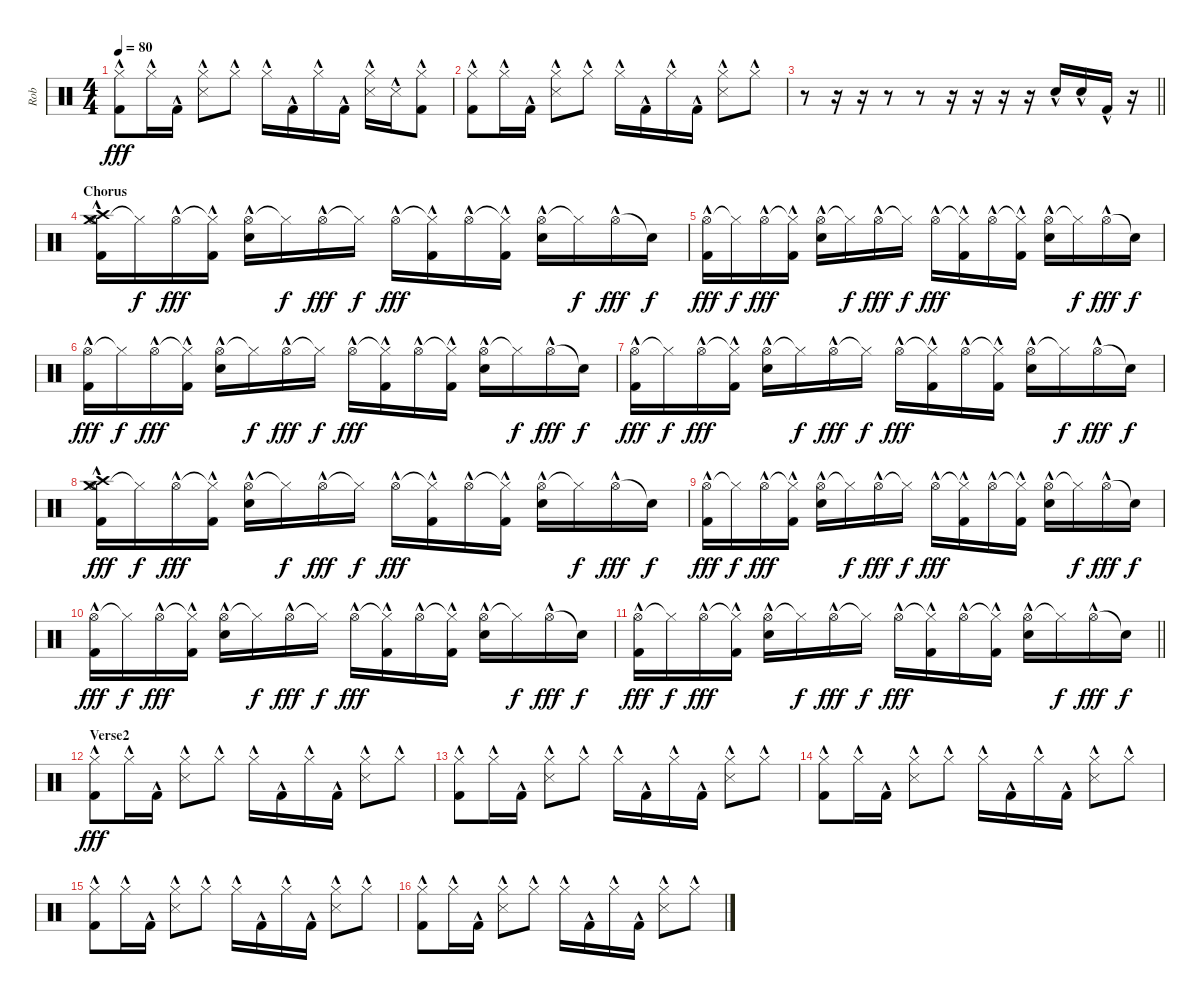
\track ("Rob" "Rob") {instrument percussion}
\staff {score}
\articulation defaults
\ts (4 4)
\tempo 80
\clef neutral
\ks c
("Hi-Hat (closed)"{hac} "Kick (hit) 2"{hac}).8{dy fff} "Hi-Hat (closed)"{hac}.16 "Kick (hit) 2"{hac}.16 ("Hi-Hat (closed)"{hac} "Snare (side stick) 3"{hac}).8 "Hi-Hat (closed)"{hac}.8 "Hi-Hat (closed)"{hac}.16 "Kick (hit) 2"{hac}.16 "Hi-Hat (closed)"{hac}.16 "Kick (hit) 2"{hac}.16 ("Hi-Hat (closed)"{hac} "Snare (side stick) 3"{hac}).16 "Snare (side stick) 3"{hac}.16 ("Hi-Hat (closed)"{hac} "Kick (hit) 2"{hac}).8 |
("Hi-Hat (closed)"{hac} "Kick (hit) 2"{hac}).8 "Hi-Hat (closed)"{hac}.16 "Kick (hit) 2"{hac}.16 ("Hi-Hat (closed)"{hac} "Snare (side stick) 3"{hac}).8 "Hi-Hat (closed)"{hac}.8 "Hi-Hat (closed)"{hac}.16 "Kick (hit) 2"{hac}.16 "Hi-Hat (closed)"{hac}.16 "Kick (hit) 2"{hac}.16 ("Hi-Hat (closed)"{hac} "Snare (side stick) 3"{hac}).8 "Hi-Hat (closed)"{hac}.8 |
\barLineRight lightlight
r.8 r.16 r.16 r.8 r.8 r.16 r.16 r.16 r.16 "Electric Snare (hit)"{hac}.16 "Electric Snare (hit)"{hac}.16 "Kick (hit) 2"{hac}.16 r.16 |
\section ("" "Chorus")
("Crash medium (hit)"{hac} "Crash high (hit)"{hac} "Hi-Hat (open)"{hac} "Kick (hit) 2"{hac}).16 "Hi-Hat (closed)"{t}.16{dy f} "Hi-Hat (open)"{hac}.16{dy fff} ("Hi-Hat (closed)"{t} "Kick (hit) 2"{hac}).16 ("Hi-Hat (open)"{hac} "Electric Snare (hit)"{hac}).16 "Hi-Hat (closed)"{t}.16{dy f} "Hi-Hat (open)"{hac}.16{dy fff} "Hi-Hat (closed)"{t}.16{dy f} "Hi-Hat (open)"{hac}.16{dy fff} ("Hi-Hat (closed)"{t} "Kick (hit) 2"{hac}).16 "Hi-Hat (open)"{hac}.16 ("Hi-Hat (closed)"{t} "Kick (hit) 2"{hac}).16 ("Hi-Hat (open)"{hac} "Electric Snare (hit)"{hac}).16 "Hi-Hat (closed)"{t}.16{dy f} "Hi-Hat (open)"{hac}.16{dy fff} "Snare (hit)"{t}.16{dy f} |
("Hi-Hat (open)"{hac} "Kick (hit) 2"{hac}).16{dy fff} "Hi-Hat (closed)"{t}.16{dy f} "Hi-Hat (open)"{hac}.16{dy fff} ("Hi-Hat (closed)"{t} "Kick (hit) 2"{hac}).16 ("Hi-Hat (open)"{hac} "Electric Snare (hit)"{hac}).16 "Hi-Hat (closed)"{t}.16{dy f} "Hi-Hat (open)"{hac}.16{dy fff} "Hi-Hat (closed)"{t}.16{dy f} "Hi-Hat (open)"{hac}.16{dy fff} ("Hi-Hat (closed)"{t} "Kick (hit) 2"{hac}).16 "Hi-Hat (open)"{hac}.16 ("Hi-Hat (closed)"{t} "Kick (hit) 2"{hac}).16 ("Hi-Hat (open)"{hac} "Electric Snare (hit)"{hac}).16 "Hi-Hat (closed)"{t}.16{dy f} "Hi-Hat (open)"{hac}.16{dy fff} "Snare (hit)"{t}.16{dy f} |
("Hi-Hat (open)"{hac} "Kick (hit) 2"{hac}).16{dy fff} "Hi-Hat (closed)"{t}.16{dy f} "Hi-Hat (open)"{hac}.16{dy fff} ("Hi-Hat (closed)"{t} "Kick (hit) 2"{hac}).16 ("Hi-Hat (open)"{hac} "Electric Snare (hit)"{hac}).16 "Hi-Hat (closed)"{t}.16{dy f} "Hi-Hat (open)"{hac}.16{dy fff} "Hi-Hat (closed)"{t}.16{dy f} "Hi-Hat (open)"{hac}.16{dy fff} ("Hi-Hat (closed)"{t} "Kick (hit) 2"{hac}).16 "Hi-Hat (open)"{hac}.16 ("Hi-Hat (closed)"{t} "Kick (hit) 2"{hac}).16 ("Hi-Hat (open)"{hac} "Electric Snare (hit)"{hac}).16 "Hi-Hat (closed)"{t}.16{dy f} "Hi-Hat (open)"{hac}.16{dy fff} "Snare (hit)"{t}.16{dy f} |
("Hi-Hat (open)"{hac} "Kick (hit) 2"{hac}).16{dy fff} "Hi-Hat (closed)"{t}.16{dy f} "Hi-Hat (open)"{hac}.16{dy fff} ("Hi-Hat (closed)"{t} "Kick (hit) 2"{hac}).16 ("Hi-Hat (open)"{hac} "Electric Snare (hit)"{hac}).16 "Hi-Hat (closed)"{t}.16{dy f} "Hi-Hat (open)"{hac}.16{dy fff} "Hi-Hat (closed)"{t}.16{dy f} "Hi-Hat (open)"{hac}.16{dy fff} ("Hi-Hat (closed)"{t} "Kick (hit) 2"{hac}).16 "Hi-Hat (open)"{hac}.16 ("Hi-Hat (closed)"{t} "Kick (hit) 2"{hac}).16 ("Hi-Hat (open)"{hac} "Electric Snare (hit)"{hac}).16 "Hi-Hat (closed)"{t}.16{dy f} "Hi-Hat (open)"{hac}.16{dy fff} "Snare (hit)"{t}.16{dy f} |
("Crash medium (hit)"{hac} "Crash high (hit)"{hac} "Hi-Hat (open)"{hac} "Kick (hit) 2"{hac}).16{dy fff} "Hi-Hat (closed)"{t}.16{dy f} "Hi-Hat (open)"{hac}.16{dy fff} ("Hi-Hat (closed)"{t} "Kick (hit) 2"{hac}).16 ("Hi-Hat (open)"{hac} "Electric Snare (hit)"{hac}).16 "Hi-Hat (closed)"{t}.16{dy f} "Hi-Hat (open)"{hac}.16{dy fff} "Hi-Hat (closed)"{t}.16{dy f} "Hi-Hat (open)"{hac}.16{dy fff} ("Hi-Hat (closed)"{t} "Kick (hit) 2"{hac}).16 "Hi-Hat (open)"{hac}.16 ("Hi-Hat (closed)"{t} "Kick (hit) 2"{hac}).16 ("Hi-Hat (open)"{hac} "Electric Snare (hit)"{hac}).16 "Hi-Hat (closed)"{t}.16{dy f} "Hi-Hat (open)"{hac}.16{dy fff} "Snare (hit)"{t}.16{dy f} |
("Hi-Hat (open)"{hac} "Kick (hit) 2"{hac}).16{dy fff} "Hi-Hat (closed)"{t}.16{dy f} "Hi-Hat (open)"{hac}.16{dy fff} ("Hi-Hat (closed)"{t} "Kick (hit) 2"{hac}).16 ("Hi-Hat (open)"{hac} "Electric Snare (hit)"{hac}).16 "Hi-Hat (closed)"{t}.16{dy f} "Hi-Hat (open)"{hac}.16{dy fff} "Hi-Hat (closed)"{t}.16{dy f} "Hi-Hat (open)"{hac}.16{dy fff} ("Hi-Hat (closed)"{t} "Kick (hit) 2"{hac}).16 "Hi-Hat (open)"{hac}.16 ("Hi-Hat (closed)"{t} "Kick (hit) 2"{hac}).16 ("Hi-Hat (open)"{hac} "Electric Snare (hit)"{hac}).16 "Hi-Hat (closed)"{t}.16{dy f} "Hi-Hat (open)"{hac}.16{dy fff} "Snare (hit)"{t}.16{dy f} |
("Hi-Hat (open)"{hac} "Kick (hit) 2"{hac}).16{dy fff} "Hi-Hat (closed)"{t}.16{dy f} "Hi-Hat (open)"{hac}.16{dy fff} ("Hi-Hat (closed)"{t} "Kick (hit) 2"{hac}).16 ("Hi-Hat (open)"{hac} "Electric Snare (hit)"{hac}).16 "Hi-Hat (closed)"{t}.16{dy f} "Hi-Hat (open)"{hac}.16{dy fff} "Hi-Hat (closed)"{t}.16{dy f} "Hi-Hat (open)"{hac}.16{dy fff} ("Hi-Hat (closed)"{t} "Kick (hit) 2"{hac}).16 "Hi-Hat (open)"{hac}.16 ("Hi-Hat (closed)"{t} "Kick (hit) 2"{hac}).16 ("Hi-Hat (open)"{hac} "Electric Snare (hit)"{hac}).16 "Hi-Hat (closed)"{t}.16{dy f} "Hi-Hat (open)"{hac}.16{dy fff} "Snare (hit)"{t}.16{dy f} |
\barLineRight lightlight
("Hi-Hat (open)"{hac} "Kick (hit) 2"{hac}).16{dy fff} "Hi-Hat (closed)"{t}.16{dy f} "Hi-Hat (open)"{hac}.16{dy fff} ("Hi-Hat (closed)"{t} "Kick (hit) 2"{hac}).16 ("Hi-Hat (open)"{hac} "Electric Snare (hit)"{hac}).16 "Hi-Hat (closed)"{t}.16{dy f} "Hi-Hat (open)"{hac}.16{dy fff} "Hi-Hat (closed)"{t}.16{dy f} "Hi-Hat (open)"{hac}.16{dy fff} ("Hi-Hat (closed)"{t} "Kick (hit) 2"{hac}).16 "Hi-Hat (open)"{hac}.16 ("Hi-Hat (closed)"{t} "Kick (hit) 2"{hac}).16 ("Hi-Hat (open)"{hac} "Electric Snare (hit)"{hac}).16 "Hi-Hat (closed)"{t}.16{dy f} "Hi-Hat (open)"{hac}.16{dy fff} "Snare (hit)"{t}.16{dy f} |
\section ("" "Verse2")
("Hi-Hat (closed)"{hac} "Kick (hit) 2"{hac}).8{dy fff} "Hi-Hat (closed)"{hac}.16 "Kick (hit) 2"{hac}.16 ("Hi-Hat (closed)"{hac} "Snare (side stick) 3"{hac}).8 "Hi-Hat (closed)"{hac}.8 "Hi-Hat (closed)"{hac}.16 "Kick (hit) 2"{hac}.16 "Hi-Hat (closed)"{hac}.16 "Kick (hit) 2"{hac}.16 ("Hi-Hat (closed)"{hac} "Snare (side stick) 3"{hac}).8 "Hi-Hat (closed)"{hac}.8 |
("Hi-Hat (closed)"{hac} "Kick (hit) 2"{hac}).8 "Hi-Hat (closed)"{hac}.16 "Kick (hit) 2"{hac}.16 ("Hi-Hat (closed)"{hac} "Snare (side stick) 3"{hac}).8 "Hi-Hat (closed)"{hac}.8 "Hi-Hat (closed)"{hac}.16 "Kick (hit) 2"{hac}.16 "Hi-Hat (closed)"{hac}.16 "Kick (hit) 2"{hac}.16 ("Hi-Hat (closed)"{hac} "Snare (side stick) 3"{hac}).8 "Hi-Hat (closed)"{hac}.8 |
("Hi-Hat (closed)"{hac} "Kick (hit) 2"{hac}).8 "Hi-Hat (closed)"{hac}.16 "Kick (hit) 2"{hac}.16 ("Hi-Hat (closed)"{hac} "Snare (side stick) 3"{hac}).8 "Hi-Hat (closed)"{hac}.8 "Hi-Hat (closed)"{hac}.16 "Kick (hit) 2"{hac}.16 "Hi-Hat (closed)"{hac}.16 "Kick (hit) 2"{hac}.16 ("Hi-Hat (closed)"{hac} "Snare (side stick) 3"{hac}).8 "Hi-Hat (closed)"{hac}.8 |
("Hi-Hat (closed)"{hac} "Kick (hit) 2"{hac}).8 "Hi-Hat (closed)"{hac}.16 "Kick (hit) 2"{hac}.16 ("Hi-Hat (closed)"{hac} "Snare (side stick) 3"{hac}).8 "Hi-Hat (closed)"{hac}.8 "Hi-Hat (closed)"{hac}.16 "Kick (hit) 2"{hac}.16 "Hi-Hat (closed)"{hac}.16 "Kick (hit) 2"{hac}.16 ("Hi-Hat (closed)"{hac} "Snare (side stick) 3"{hac}).8 "Hi-Hat (closed)"{hac}.8 |
("Hi-Hat (closed)"{hac} "Kick (hit) 2"{hac}).8 "Hi-Hat (closed)"{hac}.16 "Kick (hit) 2"{hac}.16 ("Hi-Hat (closed)"{hac} "Snare (side stick) 3"{hac}).8 "Hi-Hat (closed)"{hac}.8 "Hi-Hat (closed)"{hac}.16 "Kick (hit) 2"{hac}.16 "Hi-Hat (closed)"{hac}.16 "Kick (hit) 2"{hac}.16 ("Hi-Hat (closed)"{hac} "Snare (side stick) 3"{hac}).8 "Hi-Hat (closed)"{hac}.8
